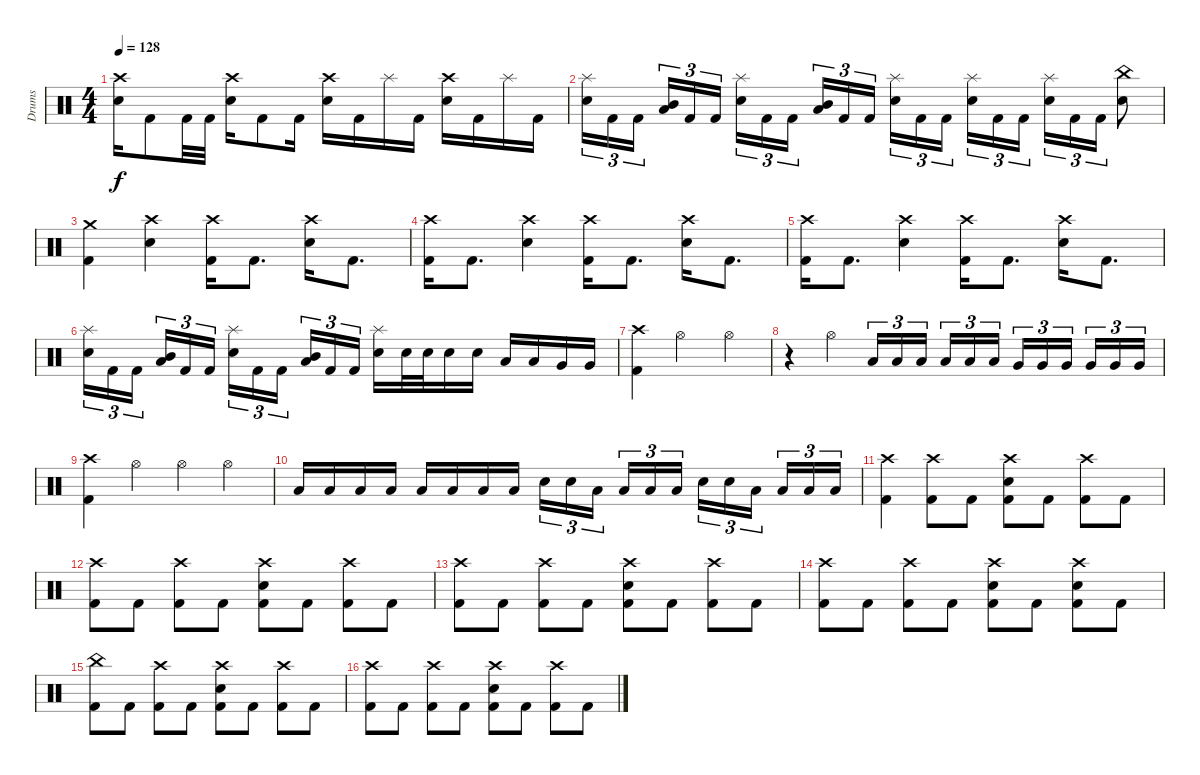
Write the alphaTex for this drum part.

\track ("Drums" "Drums") {instrument percussion}
\staff {score}
\articulation defaults
\ts (4 4)
\tempo 128
\clef neutral
\ks c
("Crash high (hit)" "Electric Snare (hit)").16{dy f} "Kick (hit) 2".8 "Kick (hit) 2".32 "Kick (hit) 2".32 ("Crash high (hit)" "Electric Snare (hit)").16 "Kick (hit) 2".8 "Kick (hit) 2".16 ("Crash high (hit)" "Electric Snare (hit)").16 "Kick (hit) 2".16 "Splash (hit)".16 "Kick (hit) 2".16 ("Crash high (hit)" "Electric Snare (hit)").16 "Kick (hit) 2".16 "Splash (hit)".16 "Kick (hit) 2".16 |
("Splash (hit)" "Electric Snare (hit)").16{tu (3 2)} "Kick (hit) 2".16{tu (3 2)} "Kick (hit) 2".16{tu (3 2) beam splitsecondary} ("Mid Tom (hit)" "Low Tom (hit)").16{tu (3 2)} "Kick (hit) 2".16{tu (3 2)} "Kick (hit) 2".16{tu (3 2)} ("Splash (hit)" "Electric Snare (hit)").16{tu (3 2)} "Kick (hit) 2".16{tu (3 2)} "Kick (hit) 2".16{tu (3 2) beam splitsecondary} ("Mid Tom (hit)" "Low Tom (hit)").16{tu (3 2)} "Kick (hit) 2".16{tu (3 2)} "Kick (hit) 2".16{tu (3 2)} ("Splash (hit)" "Electric Snare (hit)").16{tu (3 2)} "Kick (hit) 2".16{tu (3 2)} "Kick (hit) 2".16{tu (3 2) beam splitsecondary} ("Splash (hit)" "Electric Snare (hit)").16{tu (3 2)} "Kick (hit) 2".16{tu (3 2)} "Kick (hit) 2".16{tu (3 2)} ("Splash (hit)" "Electric Snare (hit)").16{tu (3 2)} "Kick (hit) 2".16{tu (3 2)} "Kick (hit) 2".16{tu (3 2)} ("China (hit)" "Electric Snare (hit)").8 |
("Crash medium (hit)" "Kick (hit) 2").4 ("Crash high (hit)" "Electric Snare (hit)").4 ("Crash high (hit)" "Kick (hit) 2").16 "Kick (hit) 2".8{d} ("Crash high (hit)" "Electric Snare (hit)").16 "Kick (hit) 2".8{d} |
("Crash high (hit)" "Kick (hit) 2").16 "Kick (hit) 2".8{d} ("Crash high (hit)" "Electric Snare (hit)").4 ("Crash high (hit)" "Kick (hit) 2").16 "Kick (hit) 2".8{d} ("Crash high (hit)" "Electric Snare (hit)").16 "Kick (hit) 2".8{d} |
("Crash high (hit)" "Kick (hit) 2").16 "Kick (hit) 2".8{d} ("Crash high (hit)" "Electric Snare (hit)").4 ("Crash high (hit)" "Kick (hit) 2").16 "Kick (hit) 2".8{d} ("Crash high (hit)" "Electric Snare (hit)").16 "Kick (hit) 2".8{d} |
("Splash (hit)" "Electric Snare (hit)").16{tu (3 2)} "Kick (hit) 2".16{tu (3 2)} "Kick (hit) 2".16{tu (3 2) beam splitsecondary} ("Mid Tom (hit)" "Low Tom (hit)").16{tu (3 2)} "Kick (hit) 2".16{tu (3 2)} "Kick (hit) 2".16{tu (3 2)} ("Splash (hit)" "Electric Snare (hit)").16{tu (3 2)} "Kick (hit) 2".16{tu (3 2)} "Kick (hit) 2".16{tu (3 2) beam splitsecondary} ("Mid Tom (hit)" "Low Tom (hit)").16{tu (3 2)} "Kick (hit) 2".16{tu (3 2)} "Kick (hit) 2".16{tu (3 2)} ("Splash (hit)" "Electric Snare (hit)").16 "Electric Snare (hit)".32 "Electric Snare (hit)".32 "Electric Snare (hit)".16 "Electric Snare (hit)".16 "Low Tom (hit)".16 "Low Tom (hit)".16 "Very Low Tom (hit)".16 "Very Low Tom (hit)".16 |
("Crash high (hit)" "Kick (hit) 2").4 "Hi-Hat (open)".2 "Hi-Hat (open)".4 |
r.4 "Hi-Hat (open)".4 "Low Tom (hit)".16{tu (3 2)} "Low Tom (hit)".16{tu (3 2)} "Low Tom (hit)".16{tu (3 2) beam splitsecondary} "Low Tom (hit)".16{tu (3 2)} "Low Tom (hit)".16{tu (3 2)} "Low Tom (hit)".16{tu (3 2)} "Very Low Tom (hit)".16{tu (3 2)} "Very Low Tom (hit)".16{tu (3 2)} "Very Low Tom (hit)".16{tu (3 2) beam splitsecondary} "Very Low Tom (hit)".16{tu (3 2)} "Very Low Tom (hit)".16{tu (3 2)} "Very Low Tom (hit)".16{tu (3 2)} |
("Crash high (hit)" "Kick (hit) 2").4 "Hi-Hat (open)".4 "Hi-Hat (open)".4 "Hi-Hat (open)".4 |
"Low Tom (hit)".16 "Low Tom (hit)".16 "Low Tom (hit)".16 "Low Tom (hit)".16 "Low Tom (hit)".16 "Low Tom (hit)".16 "Low Tom (hit)".16 "Low Tom (hit)".16 "Electric Snare (hit)".16{tu (3 2)} "Electric Snare (hit)".16{tu (3 2)} "Low Tom (hit)".16{tu (3 2) beam splitsecondary} "Low Tom (hit)".16{tu (3 2)} "Low Tom (hit)".16{tu (3 2)} "Low Tom (hit)".16{tu (3 2)} "Electric Snare (hit)".16{tu (3 2)} "Electric Snare (hit)".16{tu (3 2)} "Low Tom (hit)".16{tu (3 2) beam splitsecondary} "Low Tom (hit)".16{tu (3 2)} "Low Tom (hit)".16{tu (3 2)} "Low Tom (hit)".16{tu (3 2)} |
("Crash high (hit)" "Kick (hit) 2").4 ("Crash high (hit)" "Kick (hit) 2").8 "Kick (hit) 2".8 ("Crash high (hit)" "Electric Snare (hit)" "Kick (hit) 2").8 "Kick (hit) 2".8 ("Crash high (hit)" "Kick (hit) 2").8 "Kick (hit) 2".8 |
("Crash high (hit)" "Kick (hit) 2").8 "Kick (hit) 2".8 ("Crash high (hit)" "Kick (hit) 2").8 "Kick (hit) 2".8 ("Crash high (hit)" "Electric Snare (hit)" "Kick (hit) 2").8 "Kick (hit) 2".8 ("Crash high (hit)" "Kick (hit) 2").8 "Kick (hit) 2".8 |
("Crash high (hit)" "Kick (hit) 2").8 "Kick (hit) 2".8 ("Crash high (hit)" "Kick (hit) 2").8 "Kick (hit) 2".8 ("Crash high (hit)" "Electric Snare (hit)" "Kick (hit) 2").8 "Kick (hit) 2".8 ("Crash high (hit)" "Kick (hit) 2").8 "Kick (hit) 2".8 |
("Crash high (hit)" "Kick (hit) 2").8 "Kick (hit) 2".8 ("Crash high (hit)" "Kick (hit) 2").8 "Kick (hit) 2".8 ("Crash high (hit)" "Electric Snare (hit)" "Kick (hit) 2").8 "Kick (hit) 2".8 ("Crash high (hit)" "Electric Snare (hit)" "Kick (hit) 2").8 "Kick (hit) 2".8 |
("China (hit)" "Kick (hit) 2").8 "Kick (hit) 2".8 ("Crash high (hit)" "Kick (hit) 2").8 "Kick (hit) 2".8 ("Crash high (hit)" "Electric Snare (hit)" "Kick (hit) 2").8 "Kick (hit) 2".8 ("Crash high (hit)" "Kick (hit) 2").8 "Kick (hit) 2".8 |
("Crash high (hit)" "Kick (hit) 2").8 "Kick (hit) 2".8 ("Crash high (hit)" "Kick (hit) 2").8 "Kick (hit) 2".8 ("Crash high (hit)" "Electric Snare (hit)" "Kick (hit) 2").8 "Kick (hit) 2".8 ("Crash high (hit)" "Kick (hit) 2").8 "Kick (hit) 2".8
